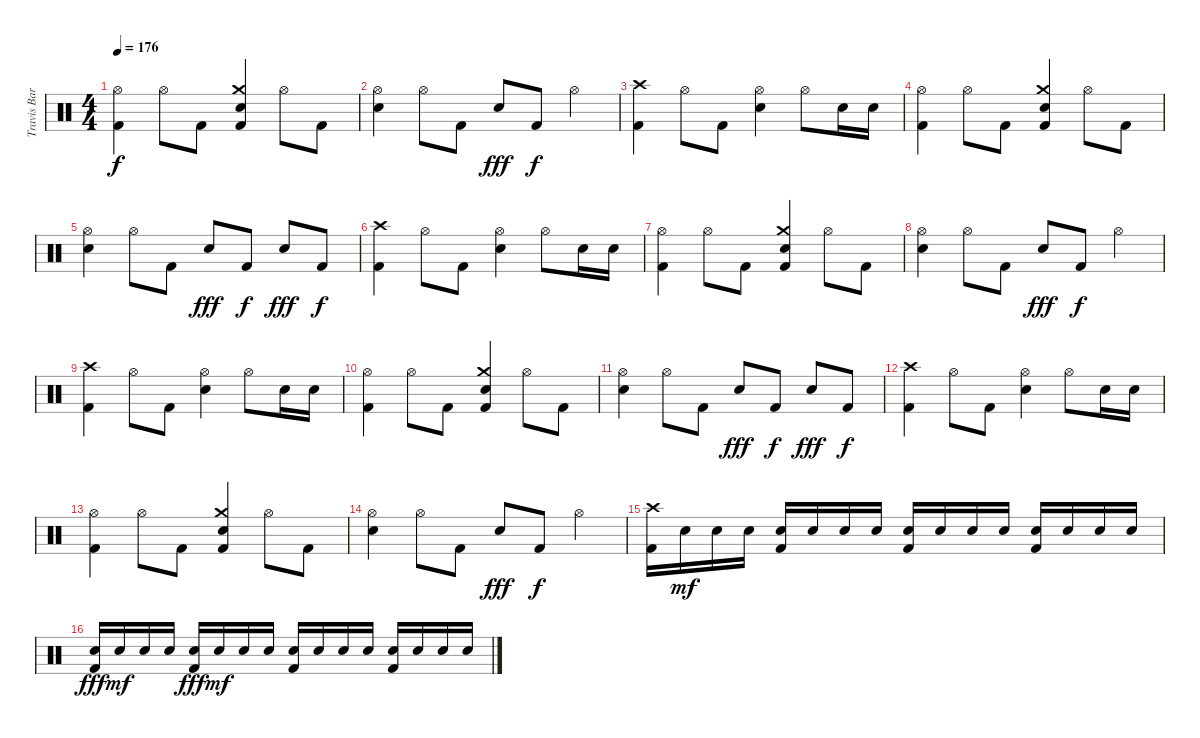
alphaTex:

\track ("Travis Barker - Drums" "Travis Bar") {instrument percussion}
\staff {score}
\articulation defaults
\ts (4 4)
\tempo 176
\clef neutral
\ks c
("Hi-Hat (open)" "Kick (hit) 2").4{dy f} "Hi-Hat (open)".8 "Kick (hit) 2".8 ("Crash medium (hit)" "Electric Snare (hit)" "Kick (hit) 2").4 "Hi-Hat (open)".8 "Kick (hit) 2".8 |
("Hi-Hat (open)" "Electric Snare (hit)").4 "Hi-Hat (open)".8 "Kick (hit) 2".8 "Electric Snare (hit)".8{dy fff} "Kick (hit) 2".8{dy f} "Hi-Hat (open)".4 |
("Crash high (hit)" "Kick (hit) 2").4 "Hi-Hat (open)".8 "Kick (hit) 2".8 ("Hi-Hat (open)" "Electric Snare (hit)").4 "Hi-Hat (open)".8 "Electric Snare (hit)".16 "Electric Snare (hit)".16 |
("Hi-Hat (open)" "Kick (hit) 2").4 "Hi-Hat (open)".8 "Kick (hit) 2".8 ("Crash medium (hit)" "Electric Snare (hit)" "Kick (hit) 2").4 "Hi-Hat (open)".8 "Kick (hit) 2".8 |
("Hi-Hat (open)" "Electric Snare (hit)").4 "Hi-Hat (open)".8 "Kick (hit) 2".8 "Electric Snare (hit)".8{dy fff} "Kick (hit) 2".8{dy f} "Electric Snare (hit)".8{dy fff} "Kick (hit) 2".8{dy f} |
("Crash high (hit)" "Kick (hit) 2").4 "Hi-Hat (open)".8 "Kick (hit) 2".8 ("Hi-Hat (open)" "Electric Snare (hit)").4 "Hi-Hat (open)".8 "Electric Snare (hit)".16 "Electric Snare (hit)".16 |
("Hi-Hat (open)" "Kick (hit) 2").4 "Hi-Hat (open)".8 "Kick (hit) 2".8 ("Crash medium (hit)" "Electric Snare (hit)" "Kick (hit) 2").4 "Hi-Hat (open)".8 "Kick (hit) 2".8 |
("Hi-Hat (open)" "Electric Snare (hit)").4 "Hi-Hat (open)".8 "Kick (hit) 2".8 "Electric Snare (hit)".8{dy fff} "Kick (hit) 2".8{dy f} "Hi-Hat (open)".4 |
("Crash high (hit)" "Kick (hit) 2").4 "Hi-Hat (open)".8 "Kick (hit) 2".8 ("Hi-Hat (open)" "Electric Snare (hit)").4 "Hi-Hat (open)".8 "Electric Snare (hit)".16 "Electric Snare (hit)".16 |
("Hi-Hat (open)" "Kick (hit) 2").4 "Hi-Hat (open)".8 "Kick (hit) 2".8 ("Crash medium (hit)" "Electric Snare (hit)" "Kick (hit) 2").4 "Hi-Hat (open)".8 "Kick (hit) 2".8 |
("Hi-Hat (open)" "Electric Snare (hit)").4 "Hi-Hat (open)".8 "Kick (hit) 2".8 "Electric Snare (hit)".8{dy fff} "Kick (hit) 2".8{dy f} "Electric Snare (hit)".8{dy fff} "Kick (hit) 2".8{dy f} |
("Crash high (hit)" "Kick (hit) 2").4 "Hi-Hat (open)".8 "Kick (hit) 2".8 ("Hi-Hat (open)" "Electric Snare (hit)").4 "Hi-Hat (open)".8 "Electric Snare (hit)".16 "Electric Snare (hit)".16 |
("Hi-Hat (open)" "Kick (hit) 2").4 "Hi-Hat (open)".8 "Kick (hit) 2".8 ("Crash medium (hit)" "Electric Snare (hit)" "Kick (hit) 2").4 "Hi-Hat (open)".8 "Kick (hit) 2".8 |
("Hi-Hat (open)" "Electric Snare (hit)").4 "Hi-Hat (open)".8 "Kick (hit) 2".8 "Electric Snare (hit)".8{dy fff} "Kick (hit) 2".8{dy f} "Hi-Hat (open)".4 |
("Crash high (hit)" "Kick (hit) 2").16 "Electric Snare (hit)".16{dy mf} "Electric Snare (hit)".16 "Electric Snare (hit)".16 ("Electric Snare (hit)" "Kick (hit) 2").16 "Electric Snare (hit)".16 "Electric Snare (hit)".16 "Electric Snare (hit)".16 ("Electric Snare (hit)" "Kick (hit) 2").16 "Electric Snare (hit)".16 "Electric Snare (hit)".16 "Electric Snare (hit)".16 ("Electric Snare (hit)" "Kick (hit) 2").16 "Electric Snare (hit)".16 "Electric Snare (hit)".16 "Electric Snare (hit)".16 |
("Electric Snare (hit)" "Kick (hit) 2").16{dy fff} "Electric Snare (hit)".16{dy mf} "Electric Snare (hit)".16 "Electric Snare (hit)".16 ("Electric Snare (hit)" "Kick (hit) 2").16{dy fff} "Electric Snare (hit)".16{dy mf} "Electric Snare (hit)".16 "Electric Snare (hit)".16 ("Electric Snare (hit)" "Kick (hit) 2").16 "Electric Snare (hit)".16 "Electric Snare (hit)".16 "Electric Snare (hit)".16 ("Electric Snare (hit)" "Kick (hit) 2").16 "Electric Snare (hit)".16 "Electric Snare (hit)".16 "Electric Snare (hit)".16
